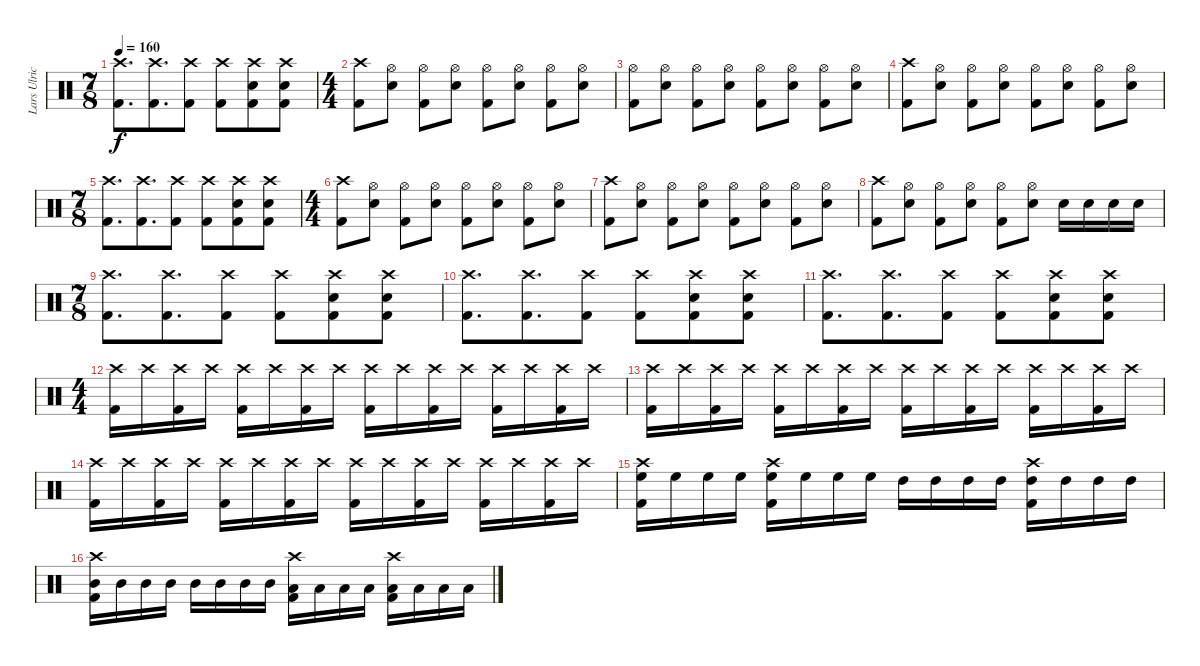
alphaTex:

\track ("Lars Ulrich" "Lars Ulric") {instrument percussion}
\staff {score}
\articulation defaults
\ts (7 8)
\tempo 160
\clef neutral
\ks c
("Crash high (hit)" "Kick (hit) 2").8{d dy f} ("Crash high (hit)" "Kick (hit) 2").8{d} ("Crash high (hit)" "Kick (hit) 2").8 ("Crash high (hit)" "Kick (hit) 2").8 ("Crash high (hit)" "Electric Snare (hit)" "Kick (hit) 2").8 ("Crash high (hit)" "Electric Snare (hit)" "Kick (hit) 2").8 |
\ts (4 4)
("Crash high (hit)" "Kick (hit) 2").8 ("Hi-Hat (open)" "Electric Snare (hit)").8 ("Hi-Hat (open)" "Kick (hit) 2").8 ("Hi-Hat (open)" "Electric Snare (hit)").8 ("Hi-Hat (open)" "Kick (hit) 2").8 ("Hi-Hat (open)" "Electric Snare (hit)").8 ("Hi-Hat (open)" "Kick (hit) 2").8 ("Hi-Hat (open)" "Electric Snare (hit)").8 |
("Hi-Hat (open)" "Kick (hit) 2").8 ("Hi-Hat (open)" "Electric Snare (hit)").8 ("Hi-Hat (open)" "Kick (hit) 2").8 ("Hi-Hat (open)" "Electric Snare (hit)").8 ("Hi-Hat (open)" "Kick (hit) 2").8 ("Hi-Hat (open)" "Electric Snare (hit)").8 ("Hi-Hat (open)" "Kick (hit) 2").8 ("Hi-Hat (open)" "Electric Snare (hit)").8 |
("Crash high (hit)" "Kick (hit) 2").8 ("Hi-Hat (open)" "Electric Snare (hit)").8 ("Hi-Hat (open)" "Kick (hit) 2").8 ("Hi-Hat (open)" "Electric Snare (hit)").8 ("Hi-Hat (open)" "Kick (hit) 2").8 ("Hi-Hat (open)" "Electric Snare (hit)").8 ("Hi-Hat (open)" "Kick (hit) 2").8 ("Hi-Hat (open)" "Electric Snare (hit)").8 |
\ts (7 8)
("Crash high (hit)" "Kick (hit) 2").8{d} ("Crash high (hit)" "Kick (hit) 2").8{d} ("Crash high (hit)" "Kick (hit) 2").8 ("Crash high (hit)" "Kick (hit) 2").8 ("Crash high (hit)" "Electric Snare (hit)" "Kick (hit) 2").8 ("Crash high (hit)" "Electric Snare (hit)" "Kick (hit) 2").8 |
\ts (4 4)
("Crash high (hit)" "Kick (hit) 2").8 ("Hi-Hat (open)" "Electric Snare (hit)").8 ("Hi-Hat (open)" "Kick (hit) 2").8 ("Hi-Hat (open)" "Electric Snare (hit)").8 ("Hi-Hat (open)" "Kick (hit) 2").8 ("Hi-Hat (open)" "Electric Snare (hit)").8 ("Hi-Hat (open)" "Kick (hit) 2").8 ("Hi-Hat (open)" "Electric Snare (hit)").8 |
("Crash high (hit)" "Kick (hit) 2").8 ("Hi-Hat (open)" "Electric Snare (hit)").8 ("Hi-Hat (open)" "Kick (hit) 2").8 ("Hi-Hat (open)" "Electric Snare (hit)").8 ("Hi-Hat (open)" "Kick (hit) 2").8 ("Hi-Hat (open)" "Electric Snare (hit)").8 ("Hi-Hat (open)" "Kick (hit) 2").8 ("Hi-Hat (open)" "Electric Snare (hit)").8 |
("Crash high (hit)" "Kick (hit) 2").8 ("Hi-Hat (open)" "Electric Snare (hit)").8 ("Hi-Hat (open)" "Kick (hit) 2").8 ("Hi-Hat (open)" "Electric Snare (hit)").8 ("Hi-Hat (open)" "Kick (hit) 2").8 ("Hi-Hat (open)" "Electric Snare (hit)").8 "Electric Snare (hit)".16 "Electric Snare (hit)".16 "Electric Snare (hit)".16 "Electric Snare (hit)".16 |
\ts (7 8)
("Crash high (hit)" "Kick (hit) 2").8{d} ("Crash high (hit)" "Kick (hit) 2").8{d} ("Crash high (hit)" "Kick (hit) 2").8 ("Crash high (hit)" "Kick (hit) 2").8 ("Crash high (hit)" "Electric Snare (hit)" "Kick (hit) 2").8 ("Crash high (hit)" "Electric Snare (hit)" "Kick (hit) 2").8 |
("Crash high (hit)" "Kick (hit) 2").8{d} ("Crash high (hit)" "Kick (hit) 2").8{d} ("Crash high (hit)" "Kick (hit) 2").8 ("Crash high (hit)" "Kick (hit) 2").8 ("Crash high (hit)" "Electric Snare (hit)" "Kick (hit) 2").8 ("Crash high (hit)" "Electric Snare (hit)" "Kick (hit) 2").8 |
("Crash high (hit)" "Kick (hit) 2").8{d} ("Crash high (hit)" "Kick (hit) 2").8{d} ("Crash high (hit)" "Kick (hit) 2").8 ("Crash high (hit)" "Kick (hit) 2").8 ("Crash high (hit)" "Electric Snare (hit)" "Kick (hit) 2").8 ("Crash high (hit)" "Electric Snare (hit)" "Kick (hit) 2").8 |
\ts (4 4)
("Crash high (hit)" "Kick (hit) 2").16 "Crash high (hit)".16 ("Crash high (hit)" "Kick (hit) 2").16 "Crash high (hit)".16 ("Crash high (hit)" "Kick (hit) 2").16 "Crash high (hit)".16 ("Crash high (hit)" "Kick (hit) 2").16 "Crash high (hit)".16 ("Crash high (hit)" "Kick (hit) 2").16 "Crash high (hit)".16 ("Crash high (hit)" "Kick (hit) 2").16 "Crash high (hit)".16 ("Crash high (hit)" "Kick (hit) 2").16 "Crash high (hit)".16 ("Crash high (hit)" "Kick (hit) 2").16 "Crash high (hit)".16 |
("Crash high (hit)" "Kick (hit) 2").16 "Crash high (hit)".16 ("Crash high (hit)" "Kick (hit) 2").16 "Crash high (hit)".16 ("Crash high (hit)" "Kick (hit) 2").16 "Crash high (hit)".16 ("Crash high (hit)" "Kick (hit) 2").16 "Crash high (hit)".16 ("Crash high (hit)" "Kick (hit) 2").16 "Crash high (hit)".16 ("Crash high (hit)" "Kick (hit) 2").16 "Crash high (hit)".16 ("Crash high (hit)" "Kick (hit) 2").16 "Crash high (hit)".16 ("Crash high (hit)" "Kick (hit) 2").16 "Crash high (hit)".16 |
("Crash high (hit)" "Kick (hit) 2").16 "Crash high (hit)".16 ("Crash high (hit)" "Kick (hit) 2").16 "Crash high (hit)".16 ("Crash high (hit)" "Kick (hit) 2").16 "Crash high (hit)".16 ("Crash high (hit)" "Kick (hit) 2").16 "Crash high (hit)".16 ("Crash high (hit)" "Kick (hit) 2").16 "Crash high (hit)".16 ("Crash high (hit)" "Kick (hit) 2").16 "Crash high (hit)".16 ("Crash high (hit)" "Kick (hit) 2").16 "Crash high (hit)".16 ("Crash high (hit)" "Kick (hit) 2").16 "Crash high (hit)".16 |
("Crash high (hit)" "Kick (hit) 2" "High Floor Tom (hit)").16 "High Floor Tom (hit)".16 "High Floor Tom (hit)".16 "High Floor Tom (hit)".16 ("Crash high (hit)" "Kick (hit) 2" "High Floor Tom (hit)").16 "High Floor Tom (hit)".16 "High Floor Tom (hit)".16 "High Floor Tom (hit)".16 "High Tom (hit)".16 "High Tom (hit)".16 "High Tom (hit)".16 "High Tom (hit)".16 ("Crash high (hit)" "Kick (hit) 2" "High Tom (hit)").16 "High Tom (hit)".16 "High Tom (hit)".16 "High Tom (hit)".16 |
("Crash high (hit)" "Kick (hit) 2" "Mid Tom (hit)").16 "Mid Tom (hit)".16 "Mid Tom (hit)".16 "Mid Tom (hit)".16 "Mid Tom (hit)".16 "Mid Tom (hit)".16 "Mid Tom (hit)".16 "Mid Tom (hit)".16 ("Crash high (hit)" "Kick (hit) 2" "Low Tom (hit)").16 "Low Tom (hit)".16 "Low Tom (hit)".16 "Low Tom (hit)".16 ("Crash high (hit)" "Kick (hit) 2" "Low Tom (hit)").16 "Low Tom (hit)".16 "Low Tom (hit)".16 "Low Tom (hit)".16
